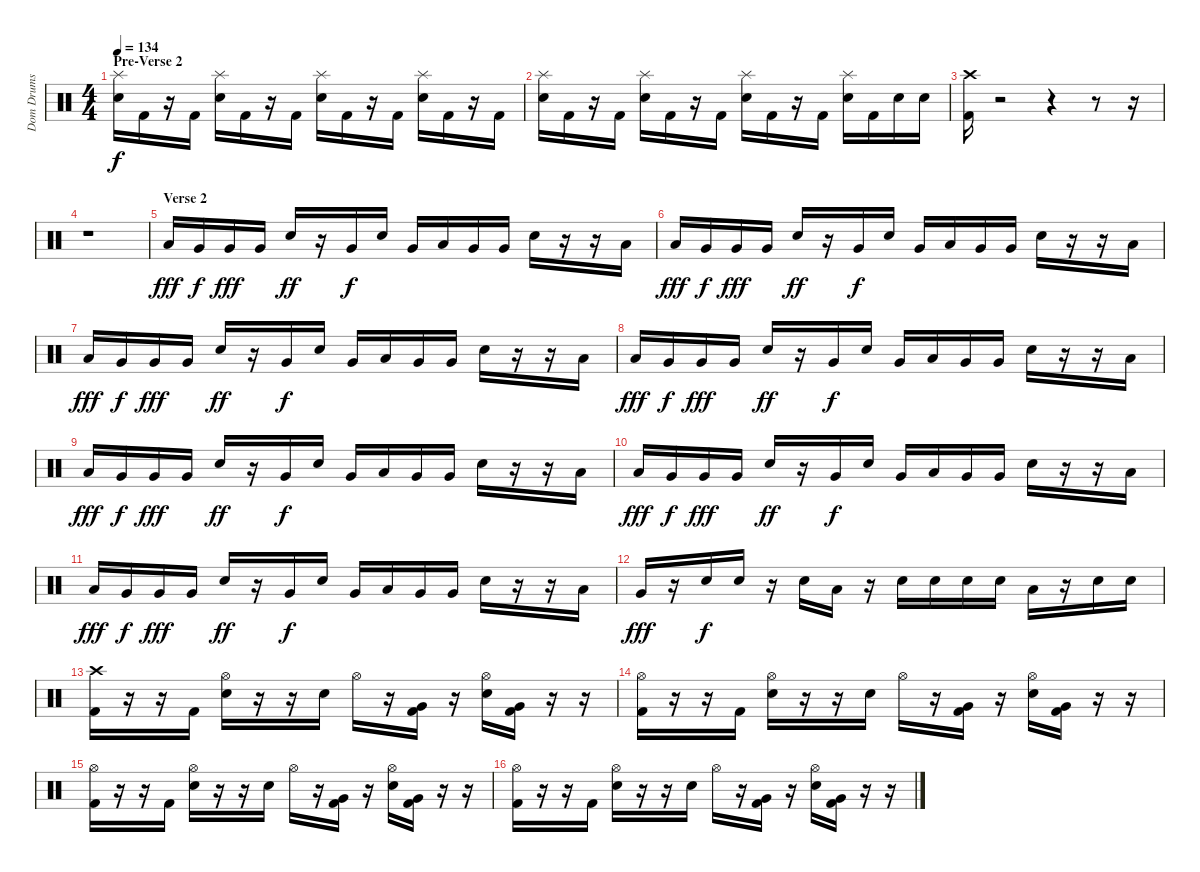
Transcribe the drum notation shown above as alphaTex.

\track ("Dom Drums" "Dom Drums") {instrument percussion}
\staff {score}
\articulation defaults
\ts (4 4)
\section ("" "Pre-Verse 2")
\tempo 134
\clef neutral
\ks c
("Splash (hit)" "Electric Snare (hit)").16{dy f} "Kick (hit) 2".16 r.16 "Kick (hit) 2".16 ("Splash (hit)" "Electric Snare (hit)").16 "Kick (hit) 2".16 r.16 "Kick (hit) 2".16 ("Splash (hit)" "Electric Snare (hit)").16 "Kick (hit) 2".16 r.16 "Kick (hit) 2".16 ("Splash (hit)" "Electric Snare (hit)").16 "Kick (hit) 2".16 r.16 "Kick (hit) 2".16 |
("Splash (hit)" "Electric Snare (hit)").16 "Kick (hit) 2".16 r.16 "Kick (hit) 2".16 ("Splash (hit)" "Electric Snare (hit)").16 "Kick (hit) 2".16 r.16 "Kick (hit) 2".16 ("Splash (hit)" "Electric Snare (hit)").16 "Kick (hit) 2".16 r.16 "Kick (hit) 2".16 ("Splash (hit)" "Electric Snare (hit)").16 "Kick (hit) 2".16 "Electric Snare (hit)".16 "Electric Snare (hit)".16 |
("Crash high (hit)" "Kick (hit) 2").16 r.2 r.4 r.8 r.16 |
r.1 |
\section ("" "Verse 2")
"Low Tom (hit)".16{dy fff} "Very Low Tom (hit)".16{dy f} "Very Low Tom (hit)".16{dy fff} "Very Low Tom (hit)".16 "Electric Snare (hit)".16{dy ff} r.16 "Very Low Tom (hit)".16{dy f} "Electric Snare (hit)".16 "Very Low Tom (hit)".16 "Low Tom (hit)".16 "Very Low Tom (hit)".16 "Very Low Tom (hit)".16 "Electric Snare (hit)".16 r.16 r.16 "Low Tom (hit)".16 |
"Low Tom (hit)".16{dy fff} "Very Low Tom (hit)".16{dy f} "Very Low Tom (hit)".16{dy fff} "Very Low Tom (hit)".16 "Electric Snare (hit)".16{dy ff} r.16 "Very Low Tom (hit)".16{dy f} "Electric Snare (hit)".16 "Very Low Tom (hit)".16 "Low Tom (hit)".16 "Very Low Tom (hit)".16 "Very Low Tom (hit)".16 "Electric Snare (hit)".16 r.16 r.16 "Low Tom (hit)".16 |
"Low Tom (hit)".16{dy fff} "Very Low Tom (hit)".16{dy f} "Very Low Tom (hit)".16{dy fff} "Very Low Tom (hit)".16 "Electric Snare (hit)".16{dy ff} r.16 "Very Low Tom (hit)".16{dy f} "Electric Snare (hit)".16 "Very Low Tom (hit)".16 "Low Tom (hit)".16 "Very Low Tom (hit)".16 "Very Low Tom (hit)".16 "Electric Snare (hit)".16 r.16 r.16 "Low Tom (hit)".16 |
"Low Tom (hit)".16{dy fff} "Very Low Tom (hit)".16{dy f} "Very Low Tom (hit)".16{dy fff} "Very Low Tom (hit)".16 "Electric Snare (hit)".16{dy ff} r.16 "Very Low Tom (hit)".16{dy f} "Electric Snare (hit)".16 "Very Low Tom (hit)".16 "Low Tom (hit)".16 "Very Low Tom (hit)".16 "Very Low Tom (hit)".16 "Electric Snare (hit)".16 r.16 r.16 "Low Tom (hit)".16 |
"Low Tom (hit)".16{dy fff} "Very Low Tom (hit)".16{dy f} "Very Low Tom (hit)".16{dy fff} "Very Low Tom (hit)".16 "Electric Snare (hit)".16{dy ff} r.16 "Very Low Tom (hit)".16{dy f} "Electric Snare (hit)".16 "Very Low Tom (hit)".16 "Low Tom (hit)".16 "Very Low Tom (hit)".16 "Very Low Tom (hit)".16 "Electric Snare (hit)".16 r.16 r.16 "Low Tom (hit)".16 |
"Low Tom (hit)".16{dy fff} "Very Low Tom (hit)".16{dy f} "Very Low Tom (hit)".16{dy fff} "Very Low Tom (hit)".16 "Electric Snare (hit)".16{dy ff} r.16 "Very Low Tom (hit)".16{dy f} "Electric Snare (hit)".16 "Very Low Tom (hit)".16 "Low Tom (hit)".16 "Very Low Tom (hit)".16 "Very Low Tom (hit)".16 "Electric Snare (hit)".16 r.16 r.16 "Low Tom (hit)".16 |
"Low Tom (hit)".16{dy fff} "Very Low Tom (hit)".16{dy f} "Very Low Tom (hit)".16{dy fff} "Very Low Tom (hit)".16 "Electric Snare (hit)".16{dy ff} r.16 "Very Low Tom (hit)".16{dy f} "Electric Snare (hit)".16 "Very Low Tom (hit)".16 "Low Tom (hit)".16 "Very Low Tom (hit)".16 "Very Low Tom (hit)".16 "Electric Snare (hit)".16 r.16 r.16 "Low Tom (hit)".16 |
"Very Low Tom (hit)".16{dy fff} r.16 "Electric Snare (hit)".16{dy f} "Electric Snare (hit)".16 r.16 "Electric Snare (hit)".16 "Low Tom (hit)".16 r.16 "Electric Snare (hit)".16 "Electric Snare (hit)".16 "Electric Snare (hit)".16 "Electric Snare (hit)".16 "Low Tom (hit)".16 r.16 "Electric Snare (hit)".16 "Electric Snare (hit)".16 |
("Crash high (hit)" "Kick (hit) 2").16 r.16 r.16 "Kick (hit) 2".16 ("Hi-Hat (open)" "Electric Snare (hit)").16 r.16 r.16 "Electric Snare (hit)".16 "Hi-Hat (open)".16 r.16 ("Very Low Tom (hit)" "Kick (hit) 2").16 r.16 ("Hi-Hat (open)" "Electric Snare (hit)").16 ("Very Low Tom (hit)" "Kick (hit) 2").16 r.16 r.16 |
("Hi-Hat (open)" "Kick (hit) 2").16 r.16 r.16 "Kick (hit) 2".16 ("Hi-Hat (open)" "Electric Snare (hit)").16 r.16 r.16 "Electric Snare (hit)".16 "Hi-Hat (open)".16 r.16 ("Very Low Tom (hit)" "Kick (hit) 2").16 r.16 ("Hi-Hat (open)" "Electric Snare (hit)").16 ("Very Low Tom (hit)" "Kick (hit) 2").16 r.16 r.16 |
("Hi-Hat (open)" "Kick (hit) 2").16 r.16 r.16 "Kick (hit) 2".16 ("Hi-Hat (open)" "Electric Snare (hit)").16 r.16 r.16 "Electric Snare (hit)".16 "Hi-Hat (open)".16 r.16 ("Very Low Tom (hit)" "Kick (hit) 2").16 r.16 ("Hi-Hat (open)" "Electric Snare (hit)").16 ("Very Low Tom (hit)" "Kick (hit) 2").16 r.16 r.16 |
("Hi-Hat (open)" "Kick (hit) 2").16 r.16 r.16 "Kick (hit) 2".16 ("Hi-Hat (open)" "Electric Snare (hit)").16 r.16 r.16 "Electric Snare (hit)".16 "Hi-Hat (open)".16 r.16 ("Very Low Tom (hit)" "Kick (hit) 2").16 r.16 ("Hi-Hat (open)" "Electric Snare (hit)").16 ("Very Low Tom (hit)" "Kick (hit) 2").16 r.16 r.16
